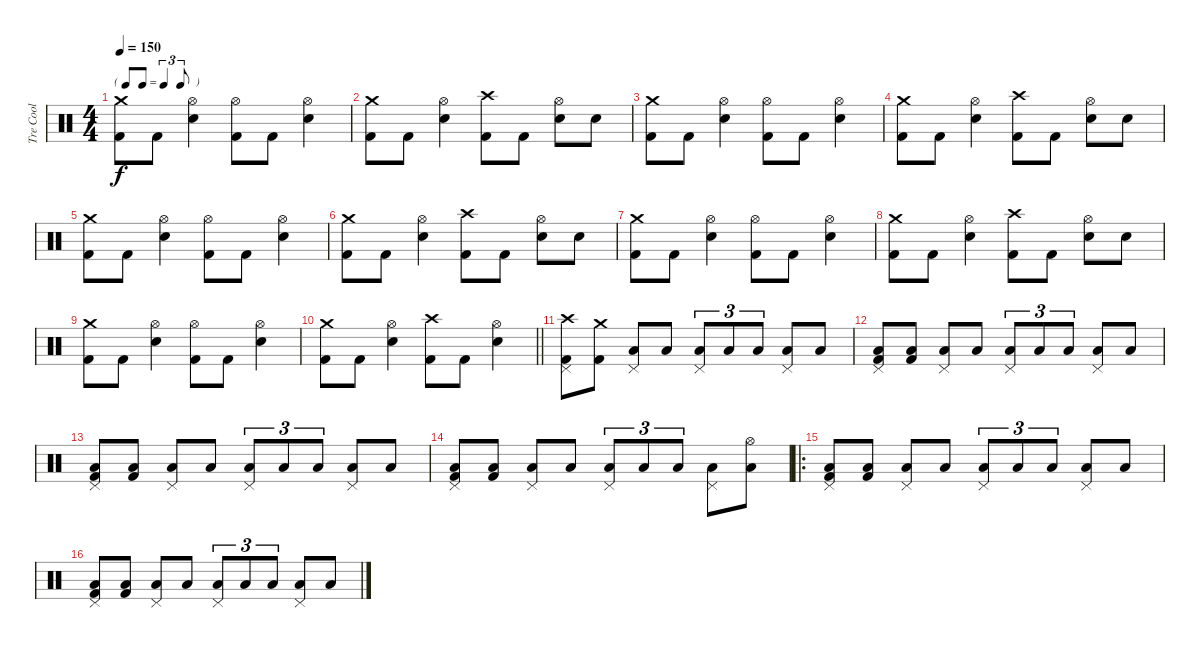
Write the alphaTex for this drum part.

\track ("Tre Cool" "Tre Cool") {instrument percussion}
\staff {score}
\articulation defaults
\ts (4 4)
\tf triplet8th
\tempo 150
\clef neutral
\ks c
("Crash medium (hit)" "Kick (hit) 2").8{dy f} "Kick (hit) 2".8 ("Hi-Hat (open)" "Electric Snare (hit)").4 ("Hi-Hat (open)" "Kick (hit) 2").8 "Kick (hit) 2".8 ("Hi-Hat (open)" "Electric Snare (hit)").4 |
("Crash medium (hit)" "Kick (hit) 2").8 "Kick (hit) 2".8 ("Hi-Hat (open)" "Electric Snare (hit)").4 ("Crash high (hit)" "Kick (hit) 2").8 "Kick (hit) 2".8 ("Hi-Hat (open)" "Electric Snare (hit)").8 "Electric Snare (hit)".8 |
("Crash medium (hit)" "Kick (hit) 2").8 "Kick (hit) 2".8 ("Hi-Hat (open)" "Electric Snare (hit)").4 ("Hi-Hat (open)" "Kick (hit) 2").8 "Kick (hit) 2".8 ("Hi-Hat (open)" "Electric Snare (hit)").4 |
("Crash medium (hit)" "Kick (hit) 2").8 "Kick (hit) 2".8 ("Hi-Hat (open)" "Electric Snare (hit)").4 ("Crash high (hit)" "Kick (hit) 2").8 "Kick (hit) 2".8 ("Hi-Hat (open)" "Electric Snare (hit)").8 "Electric Snare (hit)".8 |
("Crash medium (hit)" "Kick (hit) 2").8 "Kick (hit) 2".8 ("Hi-Hat (open)" "Electric Snare (hit)").4 ("Hi-Hat (open)" "Kick (hit) 2").8 "Kick (hit) 2".8 ("Hi-Hat (open)" "Electric Snare (hit)").4 |
("Crash medium (hit)" "Kick (hit) 2").8 "Kick (hit) 2".8 ("Hi-Hat (open)" "Electric Snare (hit)").4 ("Crash high (hit)" "Kick (hit) 2").8 "Kick (hit) 2".8 ("Hi-Hat (open)" "Electric Snare (hit)").8 "Electric Snare (hit)".8 |
("Crash medium (hit)" "Kick (hit) 2").8 "Kick (hit) 2".8 ("Hi-Hat (open)" "Electric Snare (hit)").4 ("Hi-Hat (open)" "Kick (hit) 2").8 "Kick (hit) 2".8 ("Hi-Hat (open)" "Electric Snare (hit)").4 |
("Crash medium (hit)" "Kick (hit) 2").8 "Kick (hit) 2".8 ("Hi-Hat (open)" "Electric Snare (hit)").4 ("Crash high (hit)" "Kick (hit) 2").8 "Kick (hit) 2".8 ("Hi-Hat (open)" "Electric Snare (hit)").8 "Electric Snare (hit)".8 |
("Crash medium (hit)" "Kick (hit) 2").8 "Kick (hit) 2".8 ("Hi-Hat (open)" "Electric Snare (hit)").4 ("Hi-Hat (open)" "Kick (hit) 2").8 "Kick (hit) 2".8 ("Hi-Hat (open)" "Electric Snare (hit)").4 |
\barLineRight lightlight
("Crash medium (hit)" "Kick (hit) 2").8 "Kick (hit) 2".8 ("Hi-Hat (open)" "Electric Snare (hit)").4 ("Crash high (hit)" "Kick (hit) 2").8 "Kick (hit) 2".8 ("Hi-Hat (open)" "Electric Snare (hit)").4 |
("Crash high (hit)" "Pedal Hi-Hat (hit)" "Kick (hit) 2").8 ("Crash medium (hit)" "Kick (hit) 2").8 ("Pedal Hi-Hat (hit)" "Low Tom (hit)").8 "Low Floor Tom (hit)".8 ("Pedal Hi-Hat (hit)" "Low Floor Tom (hit)").8{tu (3 2)} "Low Floor Tom (hit)".8{tu (3 2)} "Low Floor Tom (hit)".8{tu (3 2)} ("Pedal Hi-Hat (hit)" "Low Tom (hit)").8 "Low Floor Tom (hit)".8 |
("Pedal Hi-Hat (hit)" "Low Floor Tom (hit)" "Kick (hit) 2").8 ("Low Floor Tom (hit)" "Kick (hit) 2").8 ("Pedal Hi-Hat (hit)" "Low Tom (hit)").8 "Low Tom (hit)".8 ("Pedal Hi-Hat (hit)" "Low Floor Tom (hit)").8{tu (3 2)} "Low Floor Tom (hit)".8{tu (3 2)} "Low Floor Tom (hit)".8{tu (3 2)} ("Pedal Hi-Hat (hit)" "Low Tom (hit)").8 "Low Floor Tom (hit)".8 |
("Pedal Hi-Hat (hit)" "Low Floor Tom (hit)" "Kick (hit) 2").8 ("Low Floor Tom (hit)" "Kick (hit) 2").8 ("Pedal Hi-Hat (hit)" "Low Tom (hit)").8 "Low Floor Tom (hit)".8 ("Pedal Hi-Hat (hit)" "Low Floor Tom (hit)").8{tu (3 2)} "Low Floor Tom (hit)".8{tu (3 2)} "Low Floor Tom (hit)".8{tu (3 2)} ("Pedal Hi-Hat (hit)" "Low Tom (hit)").8 "Low Floor Tom (hit)".8 |
("Pedal Hi-Hat (hit)" "Low Floor Tom (hit)" "Kick (hit) 2").8 ("Low Floor Tom (hit)" "Kick (hit) 2").8 ("Pedal Hi-Hat (hit)" "Low Tom (hit)").8 "Low Tom (hit)".8 ("Pedal Hi-Hat (hit)" "Low Floor Tom (hit)").8{tu (3 2)} "Low Floor Tom (hit)".8{tu (3 2)} "Low Floor Tom (hit)".8{tu (3 2)} ("Pedal Hi-Hat (hit)" "Low Tom (hit)").8 ("Hi-Hat (open)" "Low Floor Tom (hit)").8 |
\ro
("Pedal Hi-Hat (hit)" "Low Floor Tom (hit)" "Kick (hit) 2").8 ("Low Floor Tom (hit)" "Kick (hit) 2").8 ("Pedal Hi-Hat (hit)" "Low Tom (hit)").8 "Low Floor Tom (hit)".8 ("Pedal Hi-Hat (hit)" "Low Floor Tom (hit)").8{tu (3 2)} "Low Floor Tom (hit)".8{tu (3 2)} "Low Floor Tom (hit)".8{tu (3 2)} ("Pedal Hi-Hat (hit)" "Low Tom (hit)").8 "Low Floor Tom (hit)".8 |
("Pedal Hi-Hat (hit)" "Low Floor Tom (hit)" "Kick (hit) 2").8 ("Low Floor Tom (hit)" "Kick (hit) 2").8 ("Pedal Hi-Hat (hit)" "Low Tom (hit)").8 "Low Tom (hit)".8 ("Pedal Hi-Hat (hit)" "Low Floor Tom (hit)").8{tu (3 2)} "Low Floor Tom (hit)".8{tu (3 2)} "Low Floor Tom (hit)".8{tu (3 2)} ("Pedal Hi-Hat (hit)" "Low Tom (hit)").8 "Low Floor Tom (hit)".8
